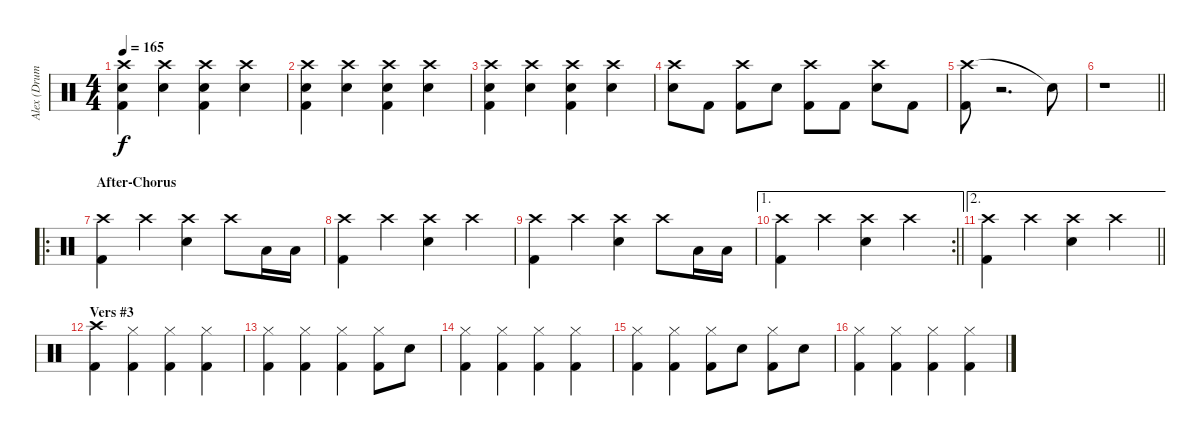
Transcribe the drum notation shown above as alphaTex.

\track ("Alex (Drums)" "Alex (Drum") {instrument percussion}
\staff {score}
\articulation defaults
\ts (4 4)
\tempo 165
\clef neutral
\ks c
("Crash high (hit)" "Snare (hit) 2" "Kick (hit) 2").4{dy f} ("Crash high (hit)" "Snare (hit) 2").4 ("Crash high (hit)" "Snare (hit) 2" "Kick (hit) 2").4 ("Crash high (hit)" "Snare (hit) 2").4 |
("Crash high (hit)" "Snare (hit) 2" "Kick (hit) 2").4 ("Crash high (hit)" "Snare (hit) 2").4 ("Crash high (hit)" "Snare (hit) 2" "Kick (hit) 2").4 ("Crash high (hit)" "Snare (hit) 2").4 |
("Crash high (hit)" "Snare (hit) 2" "Kick (hit) 2").4 ("Crash high (hit)" "Snare (hit) 2").4 ("Crash high (hit)" "Snare (hit) 2" "Kick (hit) 2").4 ("Crash high (hit)" "Snare (hit) 2").4 |
("Crash high (hit)" "Snare (hit) 2").8 "Kick (hit) 2".8 ("Crash high (hit)" "Kick (hit) 2").8 "Snare (hit) 2".8 ("Crash high (hit)" "Kick (hit) 2").8 "Kick (hit) 2".8 ("Crash high (hit)" "Snare (hit) 2").8 "Kick (hit) 2".8 |
("Crash high (hit)" "Kick (hit) 2").8{volume 6} r.2{d} "Snare (hit)"{t}.8 |
\barLineRight lightlight
r.1 |
\ro
\section ("" "After-Chorus")
("Crash high (hit)" "Kick (hit) 2").4 "Crash high (hit)".4 ("Crash high (hit)" "Snare (hit) 2").4 "Crash high (hit)".8 "Low Floor Tom (hit)".16 "Low Floor Tom (hit)".16 |
("Crash high (hit)" "Kick (hit) 2").4 "Crash high (hit)".4 ("Crash high (hit)" "Snare (hit) 2").4 "Crash high (hit)".4 |
("Crash high (hit)" "Kick (hit) 2").4 "Crash high (hit)".4 ("Crash high (hit)" "Snare (hit) 2").4 "Crash high (hit)".8 "Low Floor Tom (hit)".16 "Low Floor Tom (hit)".16 |
\ae 1
\rc 2
\barLineRight lightlight
("Crash high (hit)" "Kick (hit) 2").4 "Crash high (hit)".4 ("Crash high (hit)" "Snare (hit) 2").4 "Crash high (hit)".4 |
\ae 2
\barLineRight lightlight
("Crash high (hit)" "Kick (hit) 2").4 "Crash high (hit)".4 ("Crash high (hit)" "Snare (hit) 2").4 "Crash high (hit)".4 |
\section ("" "Vers #3")
("Crash high (hit)" "Kick (hit) 2").4{volume 8} ("Hi-Hat (closed)" "Kick (hit) 2").4 ("Hi-Hat (closed)" "Kick (hit) 2").4 ("Hi-Hat (closed)" "Kick (hit) 2").4 |
("Hi-Hat (closed)" "Kick (hit) 2").4 ("Hi-Hat (closed)" "Kick (hit) 2").4 ("Hi-Hat (closed)" "Kick (hit) 2").4 ("Hi-Hat (closed)" "Kick (hit) 2").8 "Snare (hit) 2".8 |
("Hi-Hat (closed)" "Kick (hit) 2").4 ("Hi-Hat (closed)" "Kick (hit) 2").4 ("Hi-Hat (closed)" "Kick (hit) 2").4 ("Hi-Hat (closed)" "Kick (hit) 2").4 |
("Hi-Hat (closed)" "Kick (hit) 2").4 ("Hi-Hat (closed)" "Kick (hit) 2").4 ("Hi-Hat (closed)" "Kick (hit) 2").8 "Snare (hit) 2".8 ("Hi-Hat (closed)" "Kick (hit) 2").8 "Snare (hit) 2".8 |
("Hi-Hat (closed)" "Kick (hit) 2").4 ("Hi-Hat (closed)" "Kick (hit) 2").4 ("Hi-Hat (closed)" "Kick (hit) 2").4 ("Hi-Hat (closed)" "Kick (hit) 2").4
